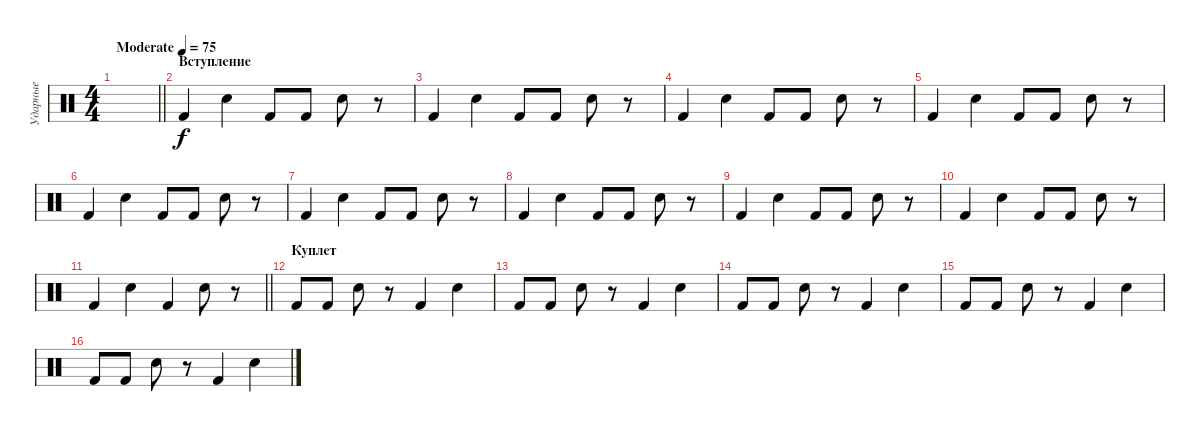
\track ("Ударные" "Ударные") {instrument percussion}
\staff {score}
\articulation defaults
\ts (4 4)
\tempo (75 "Moderate")
\clef neutral
\barLineRight lightlight
\ks c
|
\section ("" "Вступление")
"Kick (hit) 2".4 "Electric Snare (hit)".4 "Kick (hit) 2".8 "Kick (hit) 2".8 "Electric Snare (hit)".8 r.8 |
"Kick (hit) 2".4 "Electric Snare (hit)".4 "Kick (hit) 2".8 "Kick (hit) 2".8 "Electric Snare (hit)".8 r.8 |
"Kick (hit) 2".4 "Electric Snare (hit)".4 "Kick (hit) 2".8 "Kick (hit) 2".8 "Electric Snare (hit)".8 r.8 |
"Kick (hit) 2".4 "Electric Snare (hit)".4 "Kick (hit) 2".8 "Kick (hit) 2".8 "Electric Snare (hit)".8 r.8 |
"Kick (hit) 2".4 "Electric Snare (hit)".4 "Kick (hit) 2".8 "Kick (hit) 2".8 "Electric Snare (hit)".8 r.8 |
"Kick (hit) 2".4 "Electric Snare (hit)".4 "Kick (hit) 2".8 "Kick (hit) 2".8 "Electric Snare (hit)".8 r.8 |
"Kick (hit) 2".4 "Electric Snare (hit)".4 "Kick (hit) 2".8 "Kick (hit) 2".8 "Electric Snare (hit)".8 r.8 |
"Kick (hit) 2".4 "Electric Snare (hit)".4 "Kick (hit) 2".8 "Kick (hit) 2".8 "Electric Snare (hit)".8 r.8 |
"Kick (hit) 2".4 "Electric Snare (hit)".4 "Kick (hit) 2".8 "Kick (hit) 2".8 "Electric Snare (hit)".8 r.8 |
\barLineRight lightlight "Kick (hit) 2".4 "Electric Snare (hit)".4 "Kick (hit) 2".4 "Electric Snare (hit)".8
r.8 |
\section ("" "Куплет")
"Kick (hit) 2".8 "Kick (hit) 2".8 "Electric Snare (hit)".8 r.8 "Kick (hit) 2".4 "Electric Snare (hit)".4 |
"Kick (hit) 2".8 "Kick (hit) 2".8 "Electric Snare (hit)".8 r.8 "Kick (hit) 2".4 "Electric Snare (hit)".4 |
"Kick (hit) 2".8 "Kick (hit) 2".8 "Electric Snare (hit)".8 r.8 "Kick (hit) 2".4 "Electric Snare (hit)".4 |
"Kick (hit) 2".8 "Kick (hit) 2".8 "Electric Snare (hit)".8 r.8 "Kick (hit) 2".4 "Electric Snare (hit)".4 |
"Kick (hit) 2".8 "Kick (hit) 2".8 "Electric Snare (hit)".8 r.8 "Kick (hit) 2".4 "Electric Snare (hit)".4
